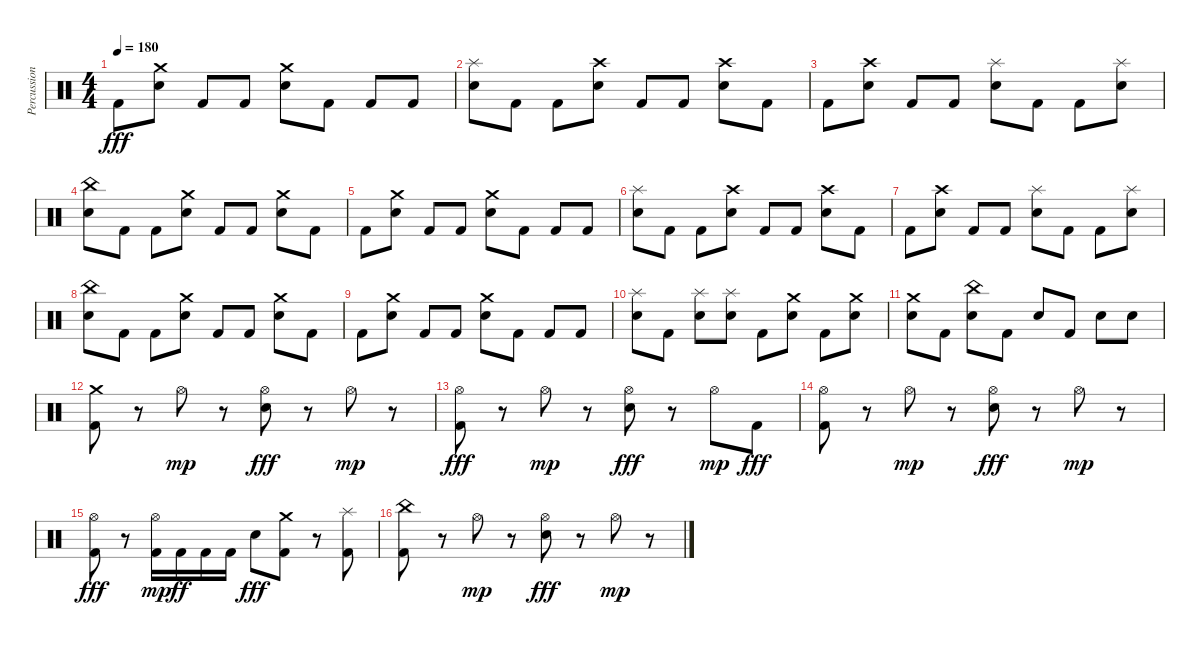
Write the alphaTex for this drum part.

\track ("Percussion" "Percussion") {instrument percussion}
\staff {score}
\articulation defaults
\ts (4 4)
\tempo 180
\clef neutral
\ks c "Kick (hit) 2".8{dy fff}
("Snare (hit) 2" "Crash medium (hit)").8 "Kick (hit) 2".8 "Kick (hit) 2".8 ("Snare (hit) 2" "Crash medium (hit)").8 "Kick (hit) 2".8 "Kick (hit) 2".8 "Kick (hit) 2".8 |
("Snare (hit) 2" "Splash (hit)").8 "Kick (hit) 2".8 "Kick (hit) 2".8 ("Snare (hit) 2" "Crash high (hit)").8 "Kick (hit) 2".8 "Kick (hit) 2".8 ("Snare (hit) 2" "Crash high (hit)").8 "Kick (hit) 2".8 |
"Kick (hit) 2".8 ("Snare (hit) 2" "Crash high (hit)").8 "Kick (hit) 2".8 "Kick (hit) 2".8 ("Snare (hit) 2" "Splash (hit)").8 "Kick (hit) 2".8 "Kick (hit) 2".8 ("Snare (hit) 2" "Splash (hit)").8 |
("Snare (hit) 2" "China (hit)").8 "Kick (hit) 2".8 "Kick (hit) 2".8 ("Snare (hit) 2" "Crash medium (hit)").8 "Kick (hit) 2".8 "Kick (hit) 2".8 ("Snare (hit) 2" "Crash medium (hit)").8 "Kick (hit) 2".8 |
"Kick (hit) 2".8 ("Snare (hit) 2" "Crash medium (hit)").8 "Kick (hit) 2".8 "Kick (hit) 2".8 ("Snare (hit) 2" "Crash medium (hit)").8 "Kick (hit) 2".8 "Kick (hit) 2".8 "Kick (hit) 2".8 |
("Snare (hit) 2" "Splash (hit)").8 "Kick (hit) 2".8 "Kick (hit) 2".8 ("Snare (hit) 2" "Crash high (hit)").8 "Kick (hit) 2".8 "Kick (hit) 2".8 ("Snare (hit) 2" "Crash high (hit)").8 "Kick (hit) 2".8 |
"Kick (hit) 2".8 ("Snare (hit) 2" "Crash high (hit)").8 "Kick (hit) 2".8 "Kick (hit) 2".8 ("Snare (hit) 2" "Splash (hit)").8 "Kick (hit) 2".8 "Kick (hit) 2".8 ("Snare (hit) 2" "Splash (hit)").8 |
("Snare (hit) 2" "China (hit)").8 "Kick (hit) 2".8 "Kick (hit) 2".8 ("Snare (hit) 2" "Crash medium (hit)").8 "Kick (hit) 2".8 "Kick (hit) 2".8 ("Snare (hit) 2" "Crash medium (hit)").8 "Kick (hit) 2".8 |
"Kick (hit) 2".8 ("Snare (hit) 2" "Crash medium (hit)").8 "Kick (hit) 2".8 "Kick (hit) 2".8 ("Snare (hit) 2" "Crash medium (hit)").8 "Kick (hit) 2".8 "Kick (hit) 2".8 "Kick (hit) 2".8 |
("Snare (hit) 2" "Splash (hit)").8 "Kick (hit) 2".8 ("Snare (hit) 2" "Splash (hit)").8 ("Snare (hit) 2" "Splash (hit)").8 "Kick (hit) 2".8 ("Snare (hit) 2" "Crash medium (hit)").8 "Kick (hit) 2".8 ("Snare (hit) 2" "Crash medium (hit)").8 |
("Snare (hit) 2" "Crash medium (hit)").8 "Kick (hit) 2".8 ("Snare (hit) 2" "China (hit)").8 "Kick (hit) 2".8 "Snare (hit) 2".8 "Kick (hit) 2".8 "Snare (hit) 2".8 "Snare (hit) 2".8 |
("Kick (hit) 2" "Crash medium (hit)").8 r.8 "Hi-Hat (open)".8{dy mp} r.8 ("Hi-Hat (open)" "Snare (hit) 2").8{dy fff} r.8 "Hi-Hat (open)".8{dy mp} r.8 |
("Hi-Hat (open)" "Kick (hit) 2").8{dy fff} r.8 "Hi-Hat (open)".8{dy mp} r.8 ("Hi-Hat (open)" "Snare (hit) 2").8{dy fff} r.8 "Hi-Hat (open)".8{dy mp} "Kick (hit) 2".8{dy fff} |
("Hi-Hat (open)" "Kick (hit) 2").8 r.8 "Hi-Hat (open)".8{dy mp} r.8 ("Hi-Hat (open)" "Snare (hit) 2").8{dy fff} r.8 "Hi-Hat (open)".8{dy mp} r.8 |
("Hi-Hat (open)" "Kick (hit) 2").8{dy fff} r.8 ("Kick (hit) 2" "Hi-Hat (open)").16{dy mp} "Kick (hit) 2".16{dy ff} "Kick (hit) 2".16 "Kick (hit) 2".16 "Snare (hit) 2".8{dy fff} ("Kick (hit) 2" "Crash medium (hit)").8 r.8 ("Kick (hit) 2" "Splash (hit)").8 |
("Kick (hit) 2" "China (hit)").8 r.8 "Hi-Hat (open)".8{dy mp} r.8 ("Hi-Hat (open)" "Snare (hit) 2").8{dy fff} r.8 "Hi-Hat (open)".8{dy mp} r.8
